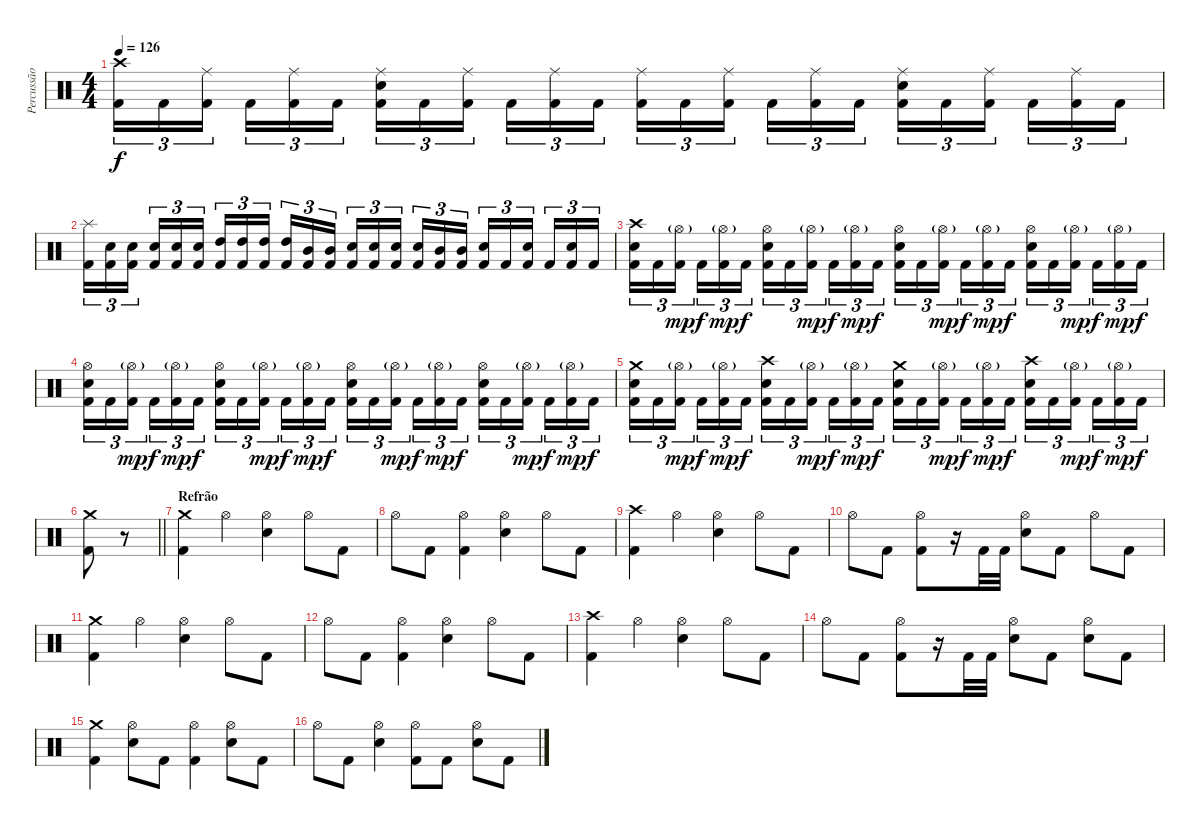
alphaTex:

\track ("Percussão" "Percussão") {instrument percussion}
\staff {score}
\articulation defaults
\ts (4 4)
\tempo 126
\clef neutral
\ks c
("Crash high (hit)" "Kick (hit) 2").16{tu (3 2) dy f} "Kick (hit) 2".16{tu (3 2)} ("Ride (middle)" "Kick (hit) 2").16{tu (3 2) beam splitsecondary} "Kick (hit) 2".16{tu (3 2)} ("Ride (middle)" "Kick (hit) 2").16{tu (3 2)} "Kick (hit) 2".16{tu (3 2)} ("Ride (middle)" "Electric Snare (hit)" "Kick (hit) 2").16{tu (3 2)} "Kick (hit) 2".16{tu (3 2)} ("Ride (middle)" "Kick (hit) 2").16{tu (3 2) beam splitsecondary} "Kick (hit) 2".16{tu (3 2)} ("Ride (middle)" "Kick (hit) 2").16{tu (3 2)} "Kick (hit) 2".16{tu (3 2)} ("Ride (middle)" "Kick (hit) 2").16{tu (3 2)} "Kick (hit) 2".16{tu (3 2)} ("Ride (middle)" "Kick (hit) 2").16{tu (3 2) beam splitsecondary} "Kick (hit) 2".16{tu (3 2)} ("Ride (middle)" "Kick (hit) 2").16{tu (3 2)} "Kick (hit) 2".16{tu (3 2)} ("Ride (middle)" "Electric Snare (hit)" "Kick (hit) 2").16{tu (3 2)} "Kick (hit) 2".16{tu (3 2)} ("Ride (middle)" "Kick (hit) 2").16{tu (3 2) beam splitsecondary} "Kick (hit) 2".16{tu (3 2)} ("Ride (middle)" "Kick (hit) 2").16{tu (3 2)} "Kick (hit) 2".16{tu (3 2)} |
("Splash (hit)" "Kick (hit) 2").16{tu (3 2)} ("Electric Snare (hit)" "Kick (hit) 2").16{tu (3 2)} ("Electric Snare (hit)" "Kick (hit) 2").16{tu (3 2) beam splitsecondary} ("Electric Snare (hit)" "Kick (hit) 2").16{tu (3 2)} ("Electric Snare (hit)" "Kick (hit) 2").16{tu (3 2)} ("Electric Snare (hit)" "Kick (hit) 2").16{tu (3 2)} ("High Tom (hit)" "Kick (hit) 2").16{tu (3 2)} ("High Tom (hit)" "Kick (hit) 2").16{tu (3 2)} ("High Tom (hit)" "Kick (hit) 2").16{tu (3 2) beam splitsecondary} ("High Tom (hit)" "Kick (hit) 2").16{tu (3 2)} ("Mid Tom (hit)" "Kick (hit) 2").16{tu (3 2)} ("Mid Tom (hit)" "Kick (hit) 2").16{tu (3 2)} ("Electric Snare (hit)" "Kick (hit) 2").16{tu (3 2)} ("Electric Snare (hit)" "Kick (hit) 2").16{tu (3 2)} ("Electric Snare (hit)" "Kick (hit) 2").16{tu (3 2) beam splitsecondary} ("Electric Snare (hit)" "Kick (hit) 2").16{tu (3 2)} ("Mid Tom (hit)" "Kick (hit) 2").16{tu (3 2)} ("Mid Tom (hit)" "Kick (hit) 2").16{tu (3 2)} ("Electric Snare (hit)" "Kick (hit) 2").16{tu (3 2)} "Kick (hit) 2".16{tu (3 2)} ("Electric Snare (hit)" "Kick (hit) 2").16{tu (3 2) beam splitsecondary} "Kick (hit) 2".16{tu (3 2)} ("Electric Snare (hit)" "Kick (hit) 2").16{tu (3 2)} "Kick (hit) 2".16{tu (3 2)} |
("Crash high (hit)" "Electric Snare (hit)" "Kick (hit) 2").16{tu (3 2)} "Kick (hit) 2".16{tu (3 2)} ("Hi-Hat (open)"{g} "Kick (hit) 2").16{tu (3 2) dy mp beam splitsecondary} "Kick (hit) 2".16{tu (3 2) dy f} ("Hi-Hat (open)"{g} "Kick (hit) 2").16{tu (3 2) dy mp} "Kick (hit) 2".16{tu (3 2) dy f} ("Hi-Hat (open)" "Electric Snare (hit)" "Kick (hit) 2").16{tu (3 2)} "Kick (hit) 2".16{tu (3 2)} ("Hi-Hat (open)"{g} "Kick (hit) 2").16{tu (3 2) dy mp beam splitsecondary} "Kick (hit) 2".16{tu (3 2) dy f} ("Hi-Hat (open)"{g} "Kick (hit) 2").16{tu (3 2) dy mp} "Kick (hit) 2".16{tu (3 2) dy f} ("Hi-Hat (open)" "Electric Snare (hit)" "Kick (hit) 2").16{tu (3 2)} "Kick (hit) 2".16{tu (3 2)} ("Hi-Hat (open)"{g} "Kick (hit) 2").16{tu (3 2) dy mp beam splitsecondary} "Kick (hit) 2".16{tu (3 2) dy f} ("Hi-Hat (open)"{g} "Kick (hit) 2").16{tu (3 2) dy mp} "Kick (hit) 2".16{tu (3 2) dy f} ("Hi-Hat (open)" "Electric Snare (hit)" "Kick (hit) 2").16{tu (3 2)} "Kick (hit) 2".16{tu (3 2)} ("Hi-Hat (open)"{g} "Kick (hit) 2").16{tu (3 2) dy mp beam splitsecondary} "Kick (hit) 2".16{tu (3 2) dy f} ("Hi-Hat (open)"{g} "Kick (hit) 2").16{tu (3 2) dy mp} "Kick (hit) 2".16{tu (3 2) dy f} |
("Hi-Hat (open)" "Electric Snare (hit)" "Kick (hit) 2").16{tu (3 2)} "Kick (hit) 2".16{tu (3 2)} ("Hi-Hat (open)"{g} "Kick (hit) 2").16{tu (3 2) dy mp beam splitsecondary} "Kick (hit) 2".16{tu (3 2) dy f} ("Hi-Hat (open)"{g} "Kick (hit) 2").16{tu (3 2) dy mp} "Kick (hit) 2".16{tu (3 2) dy f} ("Hi-Hat (open)" "Electric Snare (hit)" "Kick (hit) 2").16{tu (3 2)} "Kick (hit) 2".16{tu (3 2)} ("Hi-Hat (open)"{g} "Kick (hit) 2").16{tu (3 2) dy mp beam splitsecondary} "Kick (hit) 2".16{tu (3 2) dy f} ("Hi-Hat (open)"{g} "Kick (hit) 2").16{tu (3 2) dy mp} "Kick (hit) 2".16{tu (3 2) dy f} ("Hi-Hat (open)" "Electric Snare (hit)" "Kick (hit) 2").16{tu (3 2)} "Kick (hit) 2".16{tu (3 2)} ("Hi-Hat (open)"{g} "Kick (hit) 2").16{tu (3 2) dy mp beam splitsecondary} "Kick (hit) 2".16{tu (3 2) dy f} ("Hi-Hat (open)"{g} "Kick (hit) 2").16{tu (3 2) dy mp} "Kick (hit) 2".16{tu (3 2) dy f} ("Hi-Hat (open)" "Electric Snare (hit)" "Kick (hit) 2").16{tu (3 2)} "Kick (hit) 2".16{tu (3 2)} ("Hi-Hat (open)"{g} "Kick (hit) 2").16{tu (3 2) dy mp beam splitsecondary} "Kick (hit) 2".16{tu (3 2) dy f} ("Hi-Hat (open)"{g} "Kick (hit) 2").16{tu (3 2) dy mp} "Kick (hit) 2".16{tu (3 2) dy f} |
("Crash medium (hit)" "Electric Snare (hit)" "Kick (hit) 2").16{tu (3 2)} "Kick (hit) 2".16{tu (3 2)} ("Hi-Hat (open)"{g} "Kick (hit) 2").16{tu (3 2) dy mp beam splitsecondary} "Kick (hit) 2".16{tu (3 2) dy f} ("Hi-Hat (open)"{g} "Kick (hit) 2").16{tu (3 2) dy mp} "Kick (hit) 2".16{tu (3 2) dy f} ("Crash high (hit)" "Electric Snare (hit)" "Kick (hit) 2").16{tu (3 2)} "Kick (hit) 2".16{tu (3 2)} ("Hi-Hat (open)"{g} "Kick (hit) 2").16{tu (3 2) dy mp beam splitsecondary} "Kick (hit) 2".16{tu (3 2) dy f} ("Hi-Hat (open)"{g} "Kick (hit) 2").16{tu (3 2) dy mp} "Kick (hit) 2".16{tu (3 2) dy f} ("Crash medium (hit)" "Electric Snare (hit)" "Kick (hit) 2").16{tu (3 2)} "Kick (hit) 2".16{tu (3 2)} ("Hi-Hat (open)"{g} "Kick (hit) 2").16{tu (3 2) dy mp beam splitsecondary} "Kick (hit) 2".16{tu (3 2) dy f} ("Hi-Hat (open)"{g} "Kick (hit) 2").16{tu (3 2) dy mp} "Kick (hit) 2".16{tu (3 2) dy f} ("Crash high (hit)" "Electric Snare (hit)" "Kick (hit) 2").16{tu (3 2)} "Kick (hit) 2".16{tu (3 2)} ("Hi-Hat (open)"{g} "Kick (hit) 2").16{tu (3 2) dy mp beam splitsecondary} "Kick (hit) 2".16{tu (3 2) dy f} ("Hi-Hat (open)"{g} "Kick (hit) 2").16{tu (3 2) dy mp} "Kick (hit) 2".16{tu (3 2) dy f} |
\barLineRight lightlight
("Crash medium (hit)" "Kick (hit) 2").8 r.8{volume 0} |
\section ("" "Refrão")
("Crash medium (hit)" "Kick (hit) 2").4{volume 15} "Hi-Hat (open)".4 ("Hi-Hat (open)" "Electric Snare (hit)").4 "Hi-Hat (open)".8 "Kick (hit) 2".8 |
"Hi-Hat (open)".8 "Kick (hit) 2".8 ("Hi-Hat (open)" "Kick (hit) 2").4 ("Hi-Hat (open)" "Electric Snare (hit)").4 "Hi-Hat (open)".8 "Kick (hit) 2".8 |
("Crash high (hit)" "Kick (hit) 2").4 "Hi-Hat (open)".4 ("Hi-Hat (open)" "Electric Snare (hit)").4 "Hi-Hat (open)".8 "Kick (hit) 2".8 |
"Hi-Hat (open)".8 "Kick (hit) 2".8 ("Hi-Hat (open)" "Kick (hit) 2").8 r.16 "Kick (hit) 2".32 "Kick (hit) 2".32 ("Hi-Hat (open)" "Electric Snare (hit)").8 "Kick (hit) 2".8 "Hi-Hat (open)".8 "Kick (hit) 2".8 |
("Crash medium (hit)" "Kick (hit) 2").4{volume 15} "Hi-Hat (open)".4 ("Hi-Hat (open)" "Electric Snare (hit)").4 "Hi-Hat (open)".8 "Kick (hit) 2".8 |
"Hi-Hat (open)".8 "Kick (hit) 2".8 ("Hi-Hat (open)" "Kick (hit) 2").4 ("Hi-Hat (open)" "Electric Snare (hit)").4 "Hi-Hat (open)".8 "Kick (hit) 2".8 |
("Crash high (hit)" "Kick (hit) 2").4 "Hi-Hat (open)".4 ("Hi-Hat (open)" "Electric Snare (hit)").4 "Hi-Hat (open)".8 "Kick (hit) 2".8 |
"Hi-Hat (open)".8 "Kick (hit) 2".8 ("Hi-Hat (open)" "Kick (hit) 2").8 r.16 "Kick (hit) 2".32 "Kick (hit) 2".32 ("Hi-Hat (open)" "Electric Snare (hit)").8 "Kick (hit) 2".8 ("Hi-Hat (open)" "Electric Snare (hit)").8 "Kick (hit) 2".8 |
("Crash medium (hit)" "Kick (hit) 2").4 ("Hi-Hat (open)" "Electric Snare (hit)").8 "Kick (hit) 2".8 ("Hi-Hat (open)" "Kick (hit) 2").4 ("Hi-Hat (open)" "Electric Snare (hit)").8 "Kick (hit) 2".8 |
"Hi-Hat (open)".8 "Kick (hit) 2".8 ("Hi-Hat (open)" "Electric Snare (hit)").4 ("Hi-Hat (open)" "Kick (hit) 2").8 "Kick (hit) 2".8 ("Hi-Hat (open)" "Electric Snare (hit)").8 "Kick (hit) 2".8
